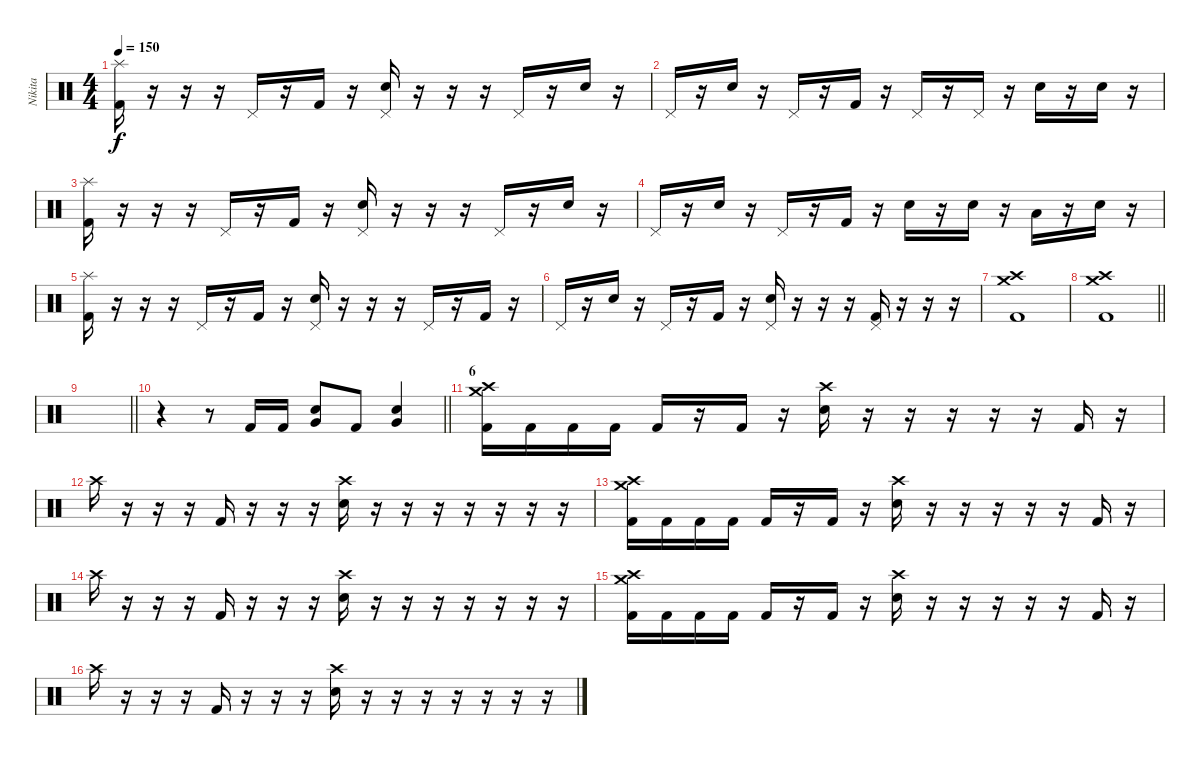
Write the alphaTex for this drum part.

\track ("Nikita" "Nikita") {instrument percussion}
\staff {score}
\articulation defaults
\ts (4 4)
\tempo 150
\clef neutral
\ks c
("Splash (hit)" "Kick (hit) 2").16{dy f} r.16 r.16 r.16 "Pedal Hi-Hat (hit)".16 r.16 "Kick (hit) 2".16 r.16 ("Pedal Hi-Hat (hit)" "Electric Snare (hit)").16 r.16 r.16 r.16 "Pedal Hi-Hat (hit)".16 r.16 "Electric Snare (hit)".16 r.16 |
"Pedal Hi-Hat (hit)".16 r.16 "Electric Snare (hit)".16 r.16 "Pedal Hi-Hat (hit)".16 r.16 "Kick (hit) 2".16 r.16 "Pedal Hi-Hat (hit)".16 r.16 "Pedal Hi-Hat (hit)".16 r.16 "Electric Snare (hit)".16 r.16 "Electric Snare (hit)".16 r.16 |
("Splash (hit)" "Kick (hit) 2").16 r.16 r.16 r.16 "Pedal Hi-Hat (hit)".16 r.16 "Kick (hit) 2".16 r.16 ("Pedal Hi-Hat (hit)" "Electric Snare (hit)").16 r.16 r.16 r.16 "Pedal Hi-Hat (hit)".16 r.16 "Electric Snare (hit)".16 r.16 |
"Pedal Hi-Hat (hit)".16 r.16 "Electric Snare (hit)".16 r.16 "Pedal Hi-Hat (hit)".16 r.16 "Kick (hit) 2".16 r.16 "Electric Snare (hit)".16 r.16 "Electric Snare (hit)".16 r.16 "Low Tom (hit)".16 r.16 "Electric Snare (hit)".16 r.16 |
("Splash (hit)" "Kick (hit) 2").16 r.16 r.16 r.16 "Pedal Hi-Hat (hit)".16 r.16 "Kick (hit) 2".16 r.16 ("Pedal Hi-Hat (hit)" "Electric Snare (hit)").16 r.16 r.16 r.16 "Pedal Hi-Hat (hit)".16 r.16 "Kick (hit) 2".16 r.16 |
"Pedal Hi-Hat (hit)".16 r.16 "Electric Snare (hit)".16 r.16 "Pedal Hi-Hat (hit)".16 r.16 "Kick (hit) 2".16 r.16 ("Pedal Hi-Hat (hit)" "Electric Snare (hit)").16 r.16 r.16 r.16 ("Pedal Hi-Hat (hit)" "Kick (hit) 2").16 r.16 r.16 r.16 |
("Crash high (hit)" "Crash medium (hit)" "Kick (hit) 2").1 |
\barLineRight lightlight
("Crash high (hit)" "Crash medium (hit)" "Kick (hit) 2").1 |
\barLineRight lightlight
|
\barLineRight lightlight
r.4 r.8 "Kick (hit) 2".16 "Kick (hit) 2".16 ("Very Low Tom (hit)" "Electric Snare (hit)").8 "Kick (hit) 2".8 ("Very Low Tom (hit)" "Electric Snare (hit)").4 |
\section ("" "6")
("Crash high (hit)" "Crash medium (hit)" "Kick (hit) 2").16 "Kick (hit) 2".16 "Kick (hit) 2".16 "Kick (hit) 2".16 "Kick (hit) 2".16 r.16 "Kick (hit) 2".16 r.16 ("Crash high (hit)" "Electric Snare (hit)").16 r.16 r.16 r.16 r.16 r.16 "Kick (hit) 2".16 r.16 |
"Crash high (hit)".16 r.16 r.16 r.16 "Kick (hit) 2".16 r.16 r.16 r.16 ("Crash high (hit)" "Electric Snare (hit)").16 r.16 r.16 r.16 r.16 r.16 r.16 r.16 |
("Crash high (hit)" "Crash medium (hit)" "Kick (hit) 2").16 "Kick (hit) 2".16 "Kick (hit) 2".16 "Kick (hit) 2".16 "Kick (hit) 2".16 r.16 "Kick (hit) 2".16 r.16 ("Crash high (hit)" "Electric Snare (hit)").16 r.16 r.16 r.16 r.16 r.16 "Kick (hit) 2".16 r.16 |
"Crash high (hit)".16 r.16 r.16 r.16 "Kick (hit) 2".16 r.16 r.16 r.16 ("Crash high (hit)" "Electric Snare (hit)").16 r.16 r.16 r.16 r.16 r.16 r.16 r.16 |
("Crash high (hit)" "Crash medium (hit)" "Kick (hit) 2").16 "Kick (hit) 2".16 "Kick (hit) 2".16 "Kick (hit) 2".16 "Kick (hit) 2".16 r.16 "Kick (hit) 2".16 r.16 ("Crash high (hit)" "Electric Snare (hit)").16 r.16 r.16 r.16 r.16 r.16 "Kick (hit) 2".16 r.16 |
"Crash high (hit)".16 r.16 r.16 r.16 "Kick (hit) 2".16 r.16 r.16 r.16 ("Crash high (hit)" "Electric Snare (hit)").16 r.16 r.16 r.16 r.16 r.16 r.16 r.16
